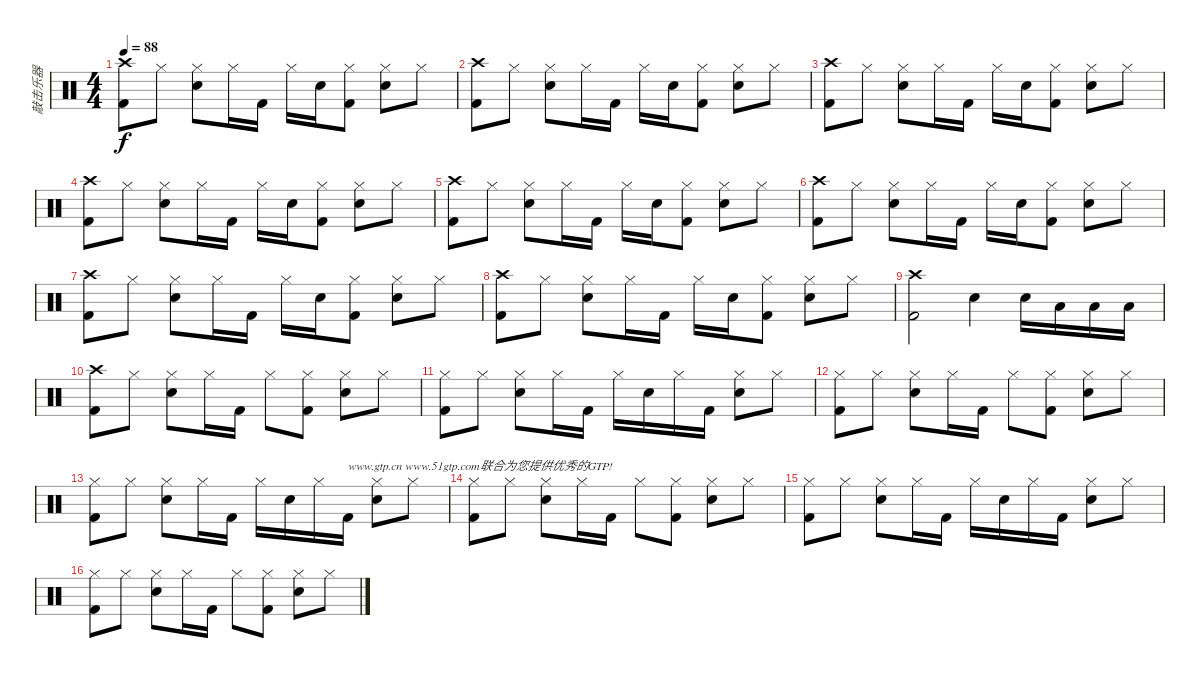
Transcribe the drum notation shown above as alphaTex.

\track ("敲击乐器" "敲击乐器") {instrument percussion}
\staff {score}
\articulation defaults
\ts (4 4)
\tempo 88
\clef neutral
\ks c
("Crash high (hit)" "Kick (hit) 2").8{dy f} "Hi-Hat (closed)".8 ("Hi-Hat (closed)" "Electric Snare (hit)").8 "Hi-Hat (closed)".16 "Kick (hit) 2".16 "Hi-Hat (closed)".16 "Electric Snare (hit)".16 ("Hi-Hat (closed)" "Kick (hit) 2").8 ("Hi-Hat (closed)" "Electric Snare (hit)").8 "Hi-Hat (closed)".8 |
("Crash high (hit)" "Kick (hit) 2").8 "Hi-Hat (closed)".8 ("Hi-Hat (closed)" "Electric Snare (hit)").8 "Hi-Hat (closed)".16 "Kick (hit) 2".16 "Hi-Hat (closed)".16 "Electric Snare (hit)".16 ("Hi-Hat (closed)" "Kick (hit) 2").8 ("Hi-Hat (closed)" "Electric Snare (hit)").8 "Hi-Hat (closed)".8 |
("Crash high (hit)" "Kick (hit) 2").8 "Hi-Hat (closed)".8 ("Hi-Hat (closed)" "Electric Snare (hit)").8 "Hi-Hat (closed)".16 "Kick (hit) 2".16 "Hi-Hat (closed)".16 "Electric Snare (hit)".16 ("Hi-Hat (closed)" "Kick (hit) 2").8 ("Hi-Hat (closed)" "Electric Snare (hit)").8 "Hi-Hat (closed)".8 |
("Crash high (hit)" "Kick (hit) 2").8 "Hi-Hat (closed)".8 ("Hi-Hat (closed)" "Electric Snare (hit)").8 "Hi-Hat (closed)".16 "Kick (hit) 2".16 "Hi-Hat (closed)".16 "Electric Snare (hit)".16 ("Hi-Hat (closed)" "Kick (hit) 2").8 ("Hi-Hat (closed)" "Electric Snare (hit)").8 "Hi-Hat (closed)".8 |
("Crash high (hit)" "Kick (hit) 2").8 "Hi-Hat (closed)".8 ("Hi-Hat (closed)" "Electric Snare (hit)").8 "Hi-Hat (closed)".16 "Kick (hit) 2".16 "Hi-Hat (closed)".16 "Electric Snare (hit)".16 ("Hi-Hat (closed)" "Kick (hit) 2").8 ("Hi-Hat (closed)" "Electric Snare (hit)").8 "Hi-Hat (closed)".8 |
("Crash high (hit)" "Kick (hit) 2").8 "Hi-Hat (closed)".8 ("Hi-Hat (closed)" "Electric Snare (hit)").8 "Hi-Hat (closed)".16 "Kick (hit) 2".16 "Hi-Hat (closed)".16 "Electric Snare (hit)".16 ("Hi-Hat (closed)" "Kick (hit) 2").8 ("Hi-Hat (closed)" "Electric Snare (hit)").8 "Hi-Hat (closed)".8 |
("Crash high (hit)" "Kick (hit) 2").8 "Hi-Hat (closed)".8 ("Hi-Hat (closed)" "Electric Snare (hit)").8 "Hi-Hat (closed)".16 "Kick (hit) 2".16 "Hi-Hat (closed)".16 "Electric Snare (hit)".16 ("Hi-Hat (closed)" "Kick (hit) 2").8 ("Hi-Hat (closed)" "Electric Snare (hit)").8 "Hi-Hat (closed)".8 |
("Crash high (hit)" "Kick (hit) 2").8 "Hi-Hat (closed)".8 ("Hi-Hat (closed)" "Electric Snare (hit)").8 "Hi-Hat (closed)".16 "Kick (hit) 2".16 "Hi-Hat (closed)".16 "Electric Snare (hit)".16 ("Hi-Hat (closed)" "Kick (hit) 2").8 ("Hi-Hat (closed)" "Electric Snare (hit)").8 "Hi-Hat (closed)".8 |
("Crash high (hit)" "Kick (hit) 2").2 "Electric Snare (hit)".4 "Electric Snare (hit)".16 "Low Floor Tom (hit)".16 "Low Tom (hit)".16 "Low Tom (hit)".16 |
("Crash high (hit)" "Kick (hit) 2").8 "Hi-Hat (closed)".8 ("Hi-Hat (closed)" "Electric Snare (hit)").8 "Hi-Hat (closed)".16 "Kick (hit) 2".16 "Hi-Hat (closed)".8 ("Hi-Hat (closed)" "Kick (hit) 2").8 ("Hi-Hat (closed)" "Electric Snare (hit)").8 "Hi-Hat (closed)".8 |
("Hi-Hat (closed)" "Kick (hit) 2").8 "Hi-Hat (closed)".8 ("Hi-Hat (closed)" "Electric Snare (hit)").8 "Hi-Hat (closed)".16 "Kick (hit) 2".16 "Hi-Hat (closed)".16 "Electric Snare (hit)".16 "Hi-Hat (closed)".16 "Kick (hit) 2".16 ("Hi-Hat (closed)" "Electric Snare (hit)").8 "Hi-Hat (closed)".8 |
("Hi-Hat (closed)" "Kick (hit) 2").8 "Hi-Hat (closed)".8 ("Hi-Hat (closed)" "Electric Snare (hit)").8 "Hi-Hat (closed)".16 "Kick (hit) 2".16 "Hi-Hat (closed)".8 ("Hi-Hat (closed)" "Kick (hit) 2").8 ("Hi-Hat (closed)" "Electric Snare (hit)").8 "Hi-Hat (closed)".8 |
("Hi-Hat (closed)" "Kick (hit) 2").8 "Hi-Hat (closed)".8 ("Hi-Hat (closed)" "Electric Snare (hit)").8 "Hi-Hat (closed)".16 "Kick (hit) 2".16 "Hi-Hat (closed)".16 "Electric Snare (hit)".16 "Hi-Hat (closed)".16 "Kick (hit) 2".16{txt "www.gtp.cn www.51gtp.com联合为您提供优秀的GTP!"} ("Hi-Hat (closed)" "Electric Snare (hit)").8 "Hi-Hat (closed)".8 |
("Hi-Hat (closed)" "Kick (hit) 2").8 "Hi-Hat (closed)".8 ("Hi-Hat (closed)" "Electric Snare (hit)").8 "Hi-Hat (closed)".16 "Kick (hit) 2".16 "Hi-Hat (closed)".8 ("Hi-Hat (closed)" "Kick (hit) 2").8 ("Hi-Hat (closed)" "Electric Snare (hit)").8 "Hi-Hat (closed)".8 |
("Hi-Hat (closed)" "Kick (hit) 2").8 "Hi-Hat (closed)".8 ("Hi-Hat (closed)" "Electric Snare (hit)").8 "Hi-Hat (closed)".16 "Kick (hit) 2".16 "Hi-Hat (closed)".16 "Electric Snare (hit)".16 "Hi-Hat (closed)".16 "Kick (hit) 2".16 ("Hi-Hat (closed)" "Electric Snare (hit)").8 "Hi-Hat (closed)".8 |
("Hi-Hat (closed)" "Kick (hit) 2").8 "Hi-Hat (closed)".8 ("Hi-Hat (closed)" "Electric Snare (hit)").8 "Hi-Hat (closed)".16 "Kick (hit) 2".16 "Hi-Hat (closed)".8 ("Hi-Hat (closed)" "Kick (hit) 2").8 ("Hi-Hat (closed)" "Electric Snare (hit)").8 "Hi-Hat (closed)".8
